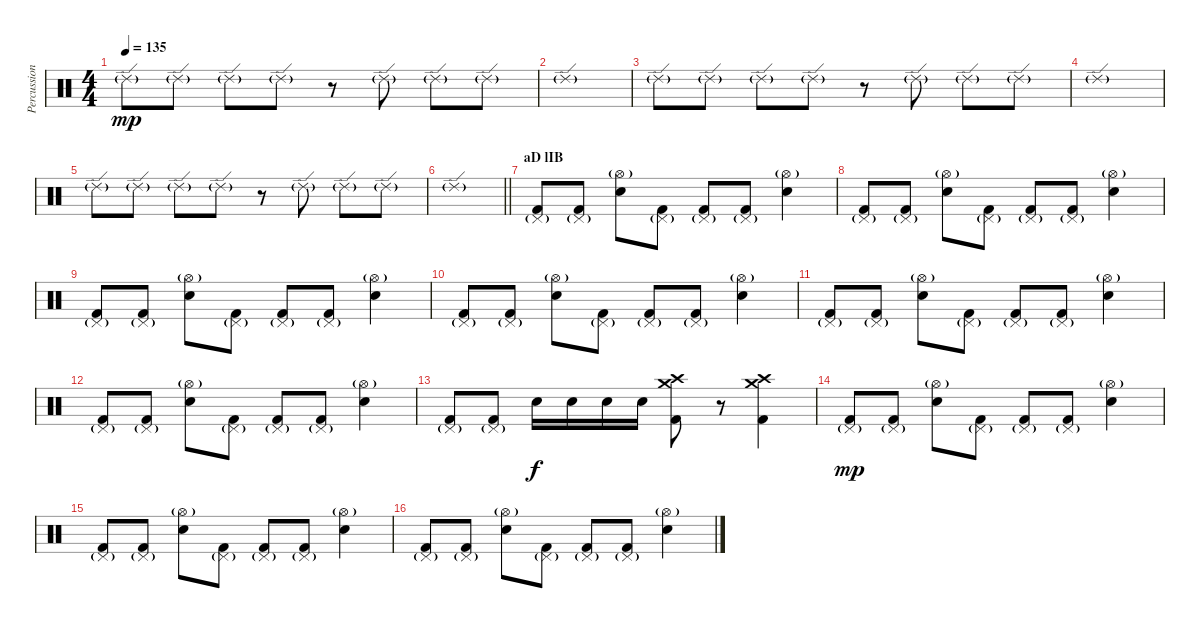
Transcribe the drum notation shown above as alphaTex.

\track ("Percussion" "Percussion") {instrument percussion}
\staff {score}
\articulation defaults
\ts (4 4)
\tempo 135
\clef neutral
\ks c "Ride (edge) 2"{g}.8{dy mp} "Ride (edge) 2"{g}.8 "Ride (edge) 2"{g}.8 "Ride (edge) 2"{g}.8
r.8 "Ride (edge) 2"{g}.8 "Ride (edge) 2"{g}.8 "Ride (edge) 2"{g}.8 |
"Ride (edge) 2"{g}.1 |
"Ride (edge) 2"{g}.8 "Ride (edge) 2"{g}.8 "Ride (edge) 2"{g}.8 "Ride (edge) 2"{g}.8 r.8 "Ride (edge) 2"{g}.8 "Ride (edge) 2"{g}.8 "Ride (edge) 2"{g}.8 |
"Ride (edge) 2"{g}.1 |
"Ride (edge) 2"{g}.8 "Ride (edge) 2"{g}.8 "Ride (edge) 2"{g}.8 "Ride (edge) 2"{g}.8 r.8 "Ride (edge) 2"{g}.8 "Ride (edge) 2"{g}.8 "Ride (edge) 2"{g}.8 |
\barLineRight lightlight "Ride (edge) 2"{g}.1
|
\section ("" "aD lIB")
("Pedal Hi-Hat (hit)"{g} "Kick (hit) 2").8 ("Pedal Hi-Hat (hit)"{g} "Kick (hit) 2").8 ("Hi-Hat (open)"{g} "Electric Snare (hit)").8 ("Pedal Hi-Hat (hit)"{g} "Kick (hit) 2").8 ("Pedal Hi-Hat (hit)"{g} "Kick (hit) 2").8 ("Pedal Hi-Hat (hit)"{g} "Kick (hit) 2").8 ("Hi-Hat (open)"{g} "Electric Snare (hit)").4 |
("Pedal Hi-Hat (hit)"{g} "Kick (hit) 2").8 ("Pedal Hi-Hat (hit)"{g} "Kick (hit) 2").8 ("Hi-Hat (open)"{g} "Electric Snare (hit)").8 ("Pedal Hi-Hat (hit)"{g} "Kick (hit) 2").8 ("Pedal Hi-Hat (hit)"{g} "Kick (hit) 2").8 ("Pedal Hi-Hat (hit)"{g} "Kick (hit) 2").8 ("Hi-Hat (open)"{g} "Electric Snare (hit)").4 |
("Pedal Hi-Hat (hit)"{g} "Kick (hit) 2").8 ("Pedal Hi-Hat (hit)"{g} "Kick (hit) 2").8 ("Hi-Hat (open)"{g} "Electric Snare (hit)").8 ("Pedal Hi-Hat (hit)"{g} "Kick (hit) 2").8 ("Pedal Hi-Hat (hit)"{g} "Kick (hit) 2").8 ("Pedal Hi-Hat (hit)"{g} "Kick (hit) 2").8 ("Hi-Hat (open)"{g} "Electric Snare (hit)").4 |
("Pedal Hi-Hat (hit)"{g} "Kick (hit) 2").8 ("Pedal Hi-Hat (hit)"{g} "Kick (hit) 2").8 ("Hi-Hat (open)"{g} "Electric Snare (hit)").8 ("Pedal Hi-Hat (hit)"{g} "Kick (hit) 2").8 ("Pedal Hi-Hat (hit)"{g} "Kick (hit) 2").8 ("Pedal Hi-Hat (hit)"{g} "Kick (hit) 2").8 ("Hi-Hat (open)"{g} "Electric Snare (hit)").4 |
("Pedal Hi-Hat (hit)"{g} "Kick (hit) 2").8 ("Pedal Hi-Hat (hit)"{g} "Kick (hit) 2").8 ("Hi-Hat (open)"{g} "Electric Snare (hit)").8 ("Pedal Hi-Hat (hit)"{g} "Kick (hit) 2").8 ("Pedal Hi-Hat (hit)"{g} "Kick (hit) 2").8 ("Pedal Hi-Hat (hit)"{g} "Kick (hit) 2").8 ("Hi-Hat (open)"{g} "Electric Snare (hit)").4 |
("Pedal Hi-Hat (hit)"{g} "Kick (hit) 2").8 ("Pedal Hi-Hat (hit)"{g} "Kick (hit) 2").8 ("Hi-Hat (open)"{g} "Electric Snare (hit)").8 ("Pedal Hi-Hat (hit)"{g} "Kick (hit) 2").8 ("Pedal Hi-Hat (hit)"{g} "Kick (hit) 2").8 ("Pedal Hi-Hat (hit)"{g} "Kick (hit) 2").8 ("Hi-Hat (open)"{g} "Electric Snare (hit)").4 |
("Pedal Hi-Hat (hit)"{g} "Kick (hit) 2").8 ("Pedal Hi-Hat (hit)"{g} "Kick (hit) 2").8 "Electric Snare (hit)".16{dy f} "Electric Snare (hit)".16 "Electric Snare (hit)".16 "Electric Snare (hit)".16 ("Crash high (hit)" "Crash medium (hit)" "Kick (hit) 2").8 r.8 ("Crash high (hit)" "Crash medium (hit)" "Kick (hit) 2").4 |
("Pedal Hi-Hat (hit)"{g} "Kick (hit) 2").8{dy mp} ("Pedal Hi-Hat (hit)"{g} "Kick (hit) 2").8 ("Hi-Hat (open)"{g} "Electric Snare (hit)").8 ("Pedal Hi-Hat (hit)"{g} "Kick (hit) 2").8 ("Pedal Hi-Hat (hit)"{g} "Kick (hit) 2").8 ("Pedal Hi-Hat (hit)"{g} "Kick (hit) 2").8 ("Hi-Hat (open)"{g} "Electric Snare (hit)").4 |
("Pedal Hi-Hat (hit)"{g} "Kick (hit) 2").8 ("Pedal Hi-Hat (hit)"{g} "Kick (hit) 2").8 ("Hi-Hat (open)"{g} "Electric Snare (hit)").8 ("Pedal Hi-Hat (hit)"{g} "Kick (hit) 2").8 ("Pedal Hi-Hat (hit)"{g} "Kick (hit) 2").8 ("Pedal Hi-Hat (hit)"{g} "Kick (hit) 2").8 ("Hi-Hat (open)"{g} "Electric Snare (hit)").4 |
("Pedal Hi-Hat (hit)"{g} "Kick (hit) 2").8 ("Pedal Hi-Hat (hit)"{g} "Kick (hit) 2").8 ("Hi-Hat (open)"{g} "Electric Snare (hit)").8 ("Pedal Hi-Hat (hit)"{g} "Kick (hit) 2").8 ("Pedal Hi-Hat (hit)"{g} "Kick (hit) 2").8 ("Pedal Hi-Hat (hit)"{g} "Kick (hit) 2").8 ("Hi-Hat (open)"{g} "Electric Snare (hit)").4
